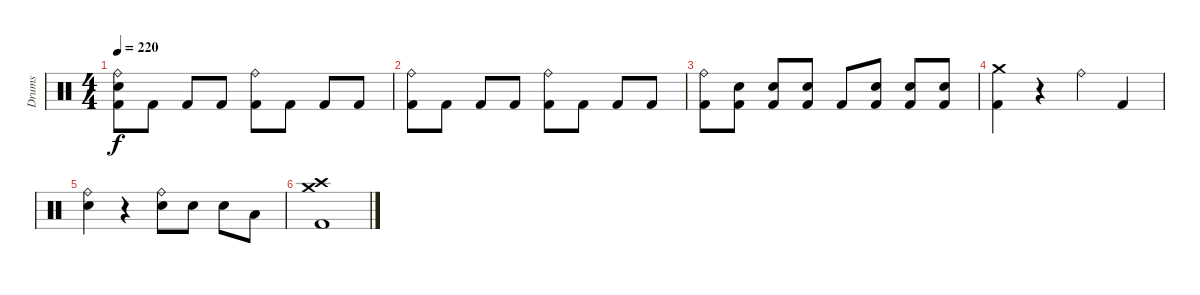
\track ("Drums" "Drums") {instrument percussion}
\staff {score}
\articulation defaults
\ts (4 4)
\tempo 220
\clef neutral
\ks c
("Ride (bell)" "Electric Snare (hit)" "Kick (hit) 2").8{dy f} "Kick (hit) 2".8 "Kick (hit) 2".8 "Kick (hit) 2".8 ("Ride (bell)" "Kick (hit) 2").8 "Kick (hit) 2".8 "Kick (hit) 2".8 "Kick (hit) 2".8 |
("Ride (bell)" "Kick (hit) 2").8 "Kick (hit) 2".8 "Kick (hit) 2".8 "Kick (hit) 2".8 ("Ride (bell)" "Kick (hit) 2").8 "Kick (hit) 2".8 "Kick (hit) 2".8 "Kick (hit) 2".8 |
("Ride (bell)" "Kick (hit) 2").8 ("Electric Snare (hit)" "Kick (hit) 2").8 ("Electric Snare (hit)" "Kick (hit) 2").8 ("Electric Snare (hit)" "Kick (hit) 2").8 "Kick (hit) 2".8 ("Electric Snare (hit)" "Kick (hit) 2").8 ("Electric Snare (hit)" "Kick (hit) 2").8 ("Electric Snare (hit)" "Kick (hit) 2").8 |
("Crash medium (hit)" "Kick (hit) 2").4 r.4 "Ride (bell)".4 "Kick (hit) 2".4 |
("Ride (bell)" "Electric Snare (hit)").4 r.4 ("Ride (bell)" "Electric Snare (hit)").8 "Electric Snare (hit)".8 "Electric Snare (hit)".8 "Low Tom (hit)".8 |
("Crash high (hit)" "Crash medium (hit)" "Kick (hit) 2").1
